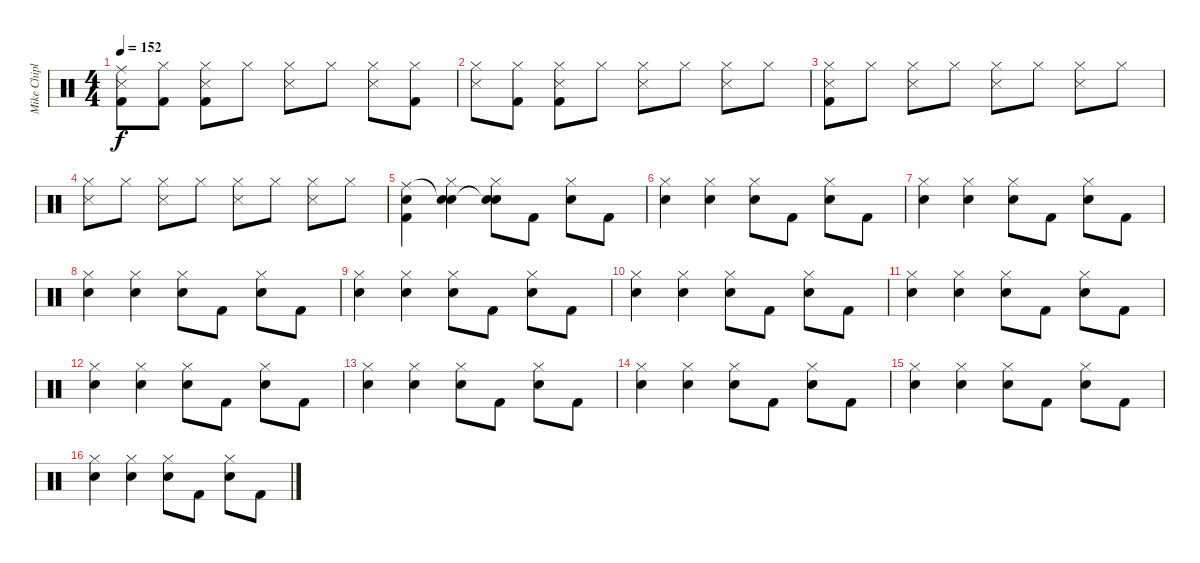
\track ("Mike Chiplin" "Mike Chipl") {instrument percussion}
\staff {score}
\articulation defaults
\ts (4 4)
\tempo 152
\clef neutral
\ks c
("Ride (middle)" "Snare (side stick) 3" "Kick (hit) 2").8{dy f} ("Hi-Hat (closed)" "Kick (hit) 2").8 ("Hi-Hat (closed)" "Snare (side stick) 3" "Kick (hit) 2").8 "Hi-Hat (closed)".8 ("Hi-Hat (closed)" "Snare (side stick) 3").8 "Hi-Hat (closed)".8 ("Hi-Hat (closed)" "Snare (side stick) 3").8 ("Hi-Hat (closed)" "Kick (hit) 2").8 |
("Hi-Hat (closed)" "Snare (side stick) 3").8 ("Hi-Hat (closed)" "Kick (hit) 2").8 ("Hi-Hat (closed)" "Snare (side stick) 3" "Kick (hit) 2").8 "Hi-Hat (closed)".8 ("Hi-Hat (closed)" "Snare (side stick) 3").8 "Hi-Hat (closed)".8 ("Hi-Hat (closed)" "Snare (side stick) 3").8 "Hi-Hat (closed)".8 |
("Hi-Hat (closed)" "Snare (side stick) 3" "Kick (hit) 2").8 "Hi-Hat (closed)".8 ("Hi-Hat (closed)" "Snare (side stick) 3").8 "Hi-Hat (closed)".8 ("Hi-Hat (closed)" "Snare (side stick) 3").8 "Hi-Hat (closed)".8 ("Hi-Hat (closed)" "Snare (side stick) 3").8 "Hi-Hat (closed)".8 |
("Hi-Hat (closed)" "Snare (side stick) 3").8 "Hi-Hat (closed)".8 ("Hi-Hat (closed)" "Snare (side stick) 3").8 "Hi-Hat (closed)".8 ("Hi-Hat (closed)" "Snare (side stick) 3").8 "Hi-Hat (closed)".8 ("Hi-Hat (closed)" "Snare (side stick) 3").8 "Hi-Hat (closed)".8 |
("Ride (middle)" "Snare (hit) 2" "Kick (hit) 2").4 ("Snare (hit)"{t} "Hi-Hat (closed)" "Snare (hit) 2").4 ("Snare (hit)"{t} "Hi-Hat (closed)" "Snare (hit) 2").8 "Kick (hit) 2".8 ("Hi-Hat (closed)" "Snare (hit) 2").8 "Kick (hit) 2".8 |
("Hi-Hat (closed)" "Snare (hit) 2").4 ("Hi-Hat (closed)" "Snare (hit) 2").4 ("Hi-Hat (closed)" "Snare (hit) 2").8 "Kick (hit) 2".8 ("Hi-Hat (closed)" "Snare (hit) 2").8 "Kick (hit) 2".8 |
("Hi-Hat (closed)" "Snare (hit) 2").4 ("Hi-Hat (closed)" "Snare (hit) 2").4 ("Hi-Hat (closed)" "Snare (hit) 2").8 "Kick (hit) 2".8 ("Hi-Hat (closed)" "Snare (hit) 2").8 "Kick (hit) 2".8 |
("Hi-Hat (closed)" "Snare (hit) 2").4 ("Hi-Hat (closed)" "Snare (hit) 2").4 ("Hi-Hat (closed)" "Snare (hit) 2").8 "Kick (hit) 2".8 ("Hi-Hat (closed)" "Snare (hit) 2").8 "Kick (hit) 2".8 |
("Hi-Hat (closed)" "Snare (hit) 2").4 ("Hi-Hat (closed)" "Snare (hit) 2").4 ("Hi-Hat (closed)" "Snare (hit) 2").8 "Kick (hit) 2".8 ("Hi-Hat (closed)" "Snare (hit) 2").8 "Kick (hit) 2".8 |
("Hi-Hat (closed)" "Snare (hit) 2").4 ("Hi-Hat (closed)" "Snare (hit) 2").4 ("Hi-Hat (closed)" "Snare (hit) 2").8 "Kick (hit) 2".8 ("Hi-Hat (closed)" "Snare (hit) 2").8 "Kick (hit) 2".8 |
("Hi-Hat (closed)" "Snare (hit) 2").4 ("Hi-Hat (closed)" "Snare (hit) 2").4 ("Hi-Hat (closed)" "Snare (hit) 2").8 "Kick (hit) 2".8 ("Hi-Hat (closed)" "Snare (hit) 2").8 "Kick (hit) 2".8 |
("Hi-Hat (closed)" "Snare (hit) 2").4 ("Hi-Hat (closed)" "Snare (hit) 2").4 ("Hi-Hat (closed)" "Snare (hit) 2").8 "Kick (hit) 2".8 ("Hi-Hat (closed)" "Snare (hit) 2").8 "Kick (hit) 2".8 |
("Hi-Hat (closed)" "Snare (hit) 2").4 ("Hi-Hat (closed)" "Snare (hit) 2").4 ("Hi-Hat (closed)" "Snare (hit) 2").8 "Kick (hit) 2".8 ("Hi-Hat (closed)" "Snare (hit) 2").8 "Kick (hit) 2".8 |
("Hi-Hat (closed)" "Snare (hit) 2").4 ("Hi-Hat (closed)" "Snare (hit) 2").4 ("Hi-Hat (closed)" "Snare (hit) 2").8 "Kick (hit) 2".8 ("Hi-Hat (closed)" "Snare (hit) 2").8 "Kick (hit) 2".8 |
("Hi-Hat (closed)" "Snare (hit) 2").4 ("Hi-Hat (closed)" "Snare (hit) 2").4 ("Hi-Hat (closed)" "Snare (hit) 2").8 "Kick (hit) 2".8 ("Hi-Hat (closed)" "Snare (hit) 2").8 "Kick (hit) 2".8 |
("Hi-Hat (closed)" "Snare (hit) 2").4 ("Hi-Hat (closed)" "Snare (hit) 2").4 ("Hi-Hat (closed)" "Snare (hit) 2").8 "Kick (hit) 2".8 ("Hi-Hat (closed)" "Snare (hit) 2").8 "Kick (hit) 2".8
